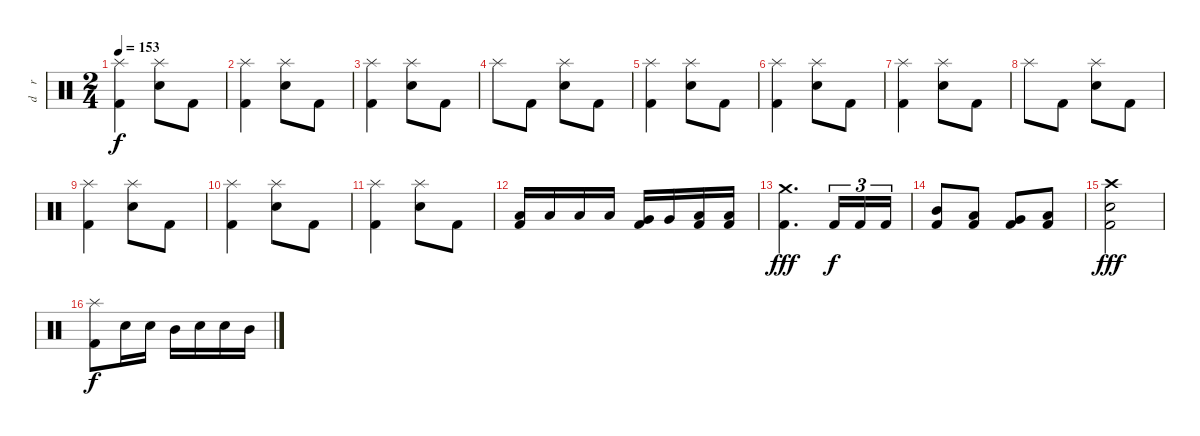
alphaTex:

\track ("d    r     u    m    s" "d    r    ") {instrument percussion}
\staff {score}
\articulation defaults
\ts (2 4)
\tempo 153
\clef neutral
\ks c
("Splash (hit)" "Kick (hit) 2").4{dy f} ("Splash (hit)" "Electric Snare (hit)").8 "Kick (hit) 2".8 |
("Splash (hit)" "Kick (hit) 2").4 ("Splash (hit)" "Electric Snare (hit)").8 "Kick (hit) 2".8 |
("Splash (hit)" "Kick (hit) 2").4 ("Splash (hit)" "Electric Snare (hit)").8 "Kick (hit) 2".8 |
"Splash (hit)".8 "Kick (hit) 2".8 ("Splash (hit)" "Electric Snare (hit)").8 "Kick (hit) 2".8 |
("Splash (hit)" "Kick (hit) 2").4 ("Splash (hit)" "Electric Snare (hit)").8 "Kick (hit) 2".8 |
("Splash (hit)" "Kick (hit) 2").4 ("Splash (hit)" "Electric Snare (hit)").8 "Kick (hit) 2".8 |
("Splash (hit)" "Kick (hit) 2").4 ("Splash (hit)" "Electric Snare (hit)").8 "Kick (hit) 2".8 |
"Splash (hit)".8 "Kick (hit) 2".8 ("Splash (hit)" "Electric Snare (hit)").8 "Kick (hit) 2".8 |
("Splash (hit)" "Kick (hit) 2").4 ("Splash (hit)" "Electric Snare (hit)").8 "Kick (hit) 2".8 |
("Splash (hit)" "Kick (hit) 2").4 ("Splash (hit)" "Electric Snare (hit)").8 "Kick (hit) 2".8 |
("Splash (hit)" "Kick (hit) 2").4 ("Splash (hit)" "Electric Snare (hit)").8 "Kick (hit) 2".8 |
("Low Tom (hit)" "Kick (hit) 2").16 "Low Tom (hit)".16 "Low Tom (hit)".16 "Low Tom (hit)".16 ("Very Low Tom (hit)" "Kick (hit) 2").16 "Very Low Tom (hit)".16 ("Low Floor Tom (hit)" "Kick (hit) 2").16 ("Low Floor Tom (hit)" "Kick (hit) 2").16 |
("Crash medium (hit)" "Kick (hit) 2").4{d dy fff} "Kick (hit) 2".16{tu (3 2) dy f} "Kick (hit) 2".16{tu (3 2)} "Kick (hit) 2".16{tu (3 2)} |
("Mid Tom (hit)" "Kick (hit) 2").8 ("Low Tom (hit)" "Kick (hit) 2").8 ("Very Low Tom (hit)" "Kick (hit) 2").8 ("Low Floor Tom (hit)" "Kick (hit) 2").8 |
("Crash high (hit)" "Electric Snare (hit)" "Kick (hit) 2").2{dy fff} |
("Splash (hit)" "Kick (hit) 2").8{dy f} "Electric Snare (hit)".16 "Electric Snare (hit)".16 "Mid Tom (hit)".16 "Electric Snare (hit)".16 "Electric Snare (hit)".16 "Mid Tom (hit)".16
